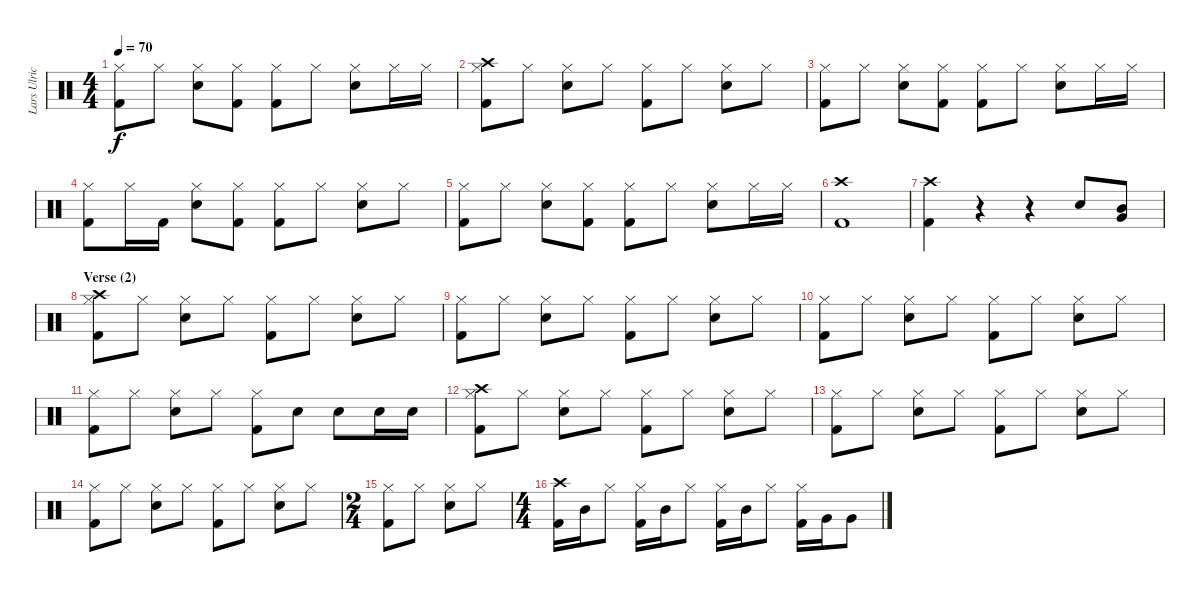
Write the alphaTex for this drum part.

\track ("Lars Ulrich (Drums)" "Lars Ulric") {instrument percussion}
\staff {score}
\articulation defaults
\ts (4 4)
\tempo 70
\clef neutral
\ks c
("Hi-Hat (closed)" "Kick (hit) 2").8{dy f} "Hi-Hat (closed)".8 ("Electric Snare (hit)" "Hi-Hat (closed)").8 ("Hi-Hat (closed)" "Kick (hit) 2").8 ("Hi-Hat (closed)" "Kick (hit) 2").8 "Hi-Hat (closed)".8 ("Electric Snare (hit)" "Hi-Hat (closed)").8 "Hi-Hat (closed)".16 "Hi-Hat (closed)".16 |
("Crash high (hit)" "Hi-Hat (closed)" "Kick (hit) 2").8 "Hi-Hat (closed)".8 ("Electric Snare (hit)" "Hi-Hat (closed)").8 "Hi-Hat (closed)".8 ("Hi-Hat (closed)" "Kick (hit) 2").8 "Hi-Hat (closed)".8 ("Electric Snare (hit)" "Hi-Hat (closed)").8 "Hi-Hat (closed)".8 |
("Hi-Hat (closed)" "Kick (hit) 2").8 "Hi-Hat (closed)".8 ("Electric Snare (hit)" "Hi-Hat (closed)").8 ("Hi-Hat (closed)" "Kick (hit) 2").8 ("Hi-Hat (closed)" "Kick (hit) 2").8 "Hi-Hat (closed)".8 ("Electric Snare (hit)" "Hi-Hat (closed)").8 "Hi-Hat (closed)".16 "Hi-Hat (closed)".16 |
("Hi-Hat (closed)" "Kick (hit) 2").8 "Hi-Hat (closed)".16 "Kick (hit) 2".16 ("Electric Snare (hit)" "Hi-Hat (closed)").8 ("Hi-Hat (closed)" "Kick (hit) 2").8 ("Hi-Hat (closed)" "Kick (hit) 2").8 "Hi-Hat (closed)".8 ("Electric Snare (hit)" "Hi-Hat (closed)").8 "Hi-Hat (closed)".8 |
("Hi-Hat (closed)" "Kick (hit) 2").8 "Hi-Hat (closed)".8 ("Electric Snare (hit)" "Hi-Hat (closed)").8 ("Hi-Hat (closed)" "Kick (hit) 2").8 ("Hi-Hat (closed)" "Kick (hit) 2").8 "Hi-Hat (closed)".8 ("Electric Snare (hit)" "Hi-Hat (closed)").8 "Hi-Hat (closed)".16 "Hi-Hat (closed)".16 |
("Crash high (hit)" "Kick (hit) 2").1 |
("Crash high (hit)" "Kick (hit) 2").4 r.4 r.4 "Electric Snare (hit)".8 ("Very Low Tom (hit)" "Mid Tom (hit)").8 |
\section ("" "Verse (2)")
("Crash high (hit)" "Hi-Hat (closed)" "Kick (hit) 2").8 "Hi-Hat (closed)".8 ("Electric Snare (hit)" "Hi-Hat (closed)").8 "Hi-Hat (closed)".8 ("Hi-Hat (closed)" "Kick (hit) 2").8 "Hi-Hat (closed)".8 ("Electric Snare (hit)" "Hi-Hat (closed)").8 "Hi-Hat (closed)".8 |
("Hi-Hat (closed)" "Kick (hit) 2").8 "Hi-Hat (closed)".8 ("Electric Snare (hit)" "Hi-Hat (closed)").8 "Hi-Hat (closed)".8 ("Hi-Hat (closed)" "Kick (hit) 2").8 "Hi-Hat (closed)".8 ("Electric Snare (hit)" "Hi-Hat (closed)").8 "Hi-Hat (closed)".8 |
("Hi-Hat (closed)" "Kick (hit) 2").8 "Hi-Hat (closed)".8 ("Electric Snare (hit)" "Hi-Hat (closed)").8 "Hi-Hat (closed)".8 ("Hi-Hat (closed)" "Kick (hit) 2").8 "Hi-Hat (closed)".8 ("Electric Snare (hit)" "Hi-Hat (closed)").8 "Hi-Hat (closed)".8 |
("Hi-Hat (closed)" "Kick (hit) 2").8 "Hi-Hat (closed)".8 ("Electric Snare (hit)" "Hi-Hat (closed)").8 "Hi-Hat (closed)".8 ("Hi-Hat (closed)" "Kick (hit) 2").8 "Electric Snare (hit)".8 "Electric Snare (hit)".8 "Electric Snare (hit)".16 "Electric Snare (hit)".16 |
("Crash high (hit)" "Hi-Hat (closed)" "Kick (hit) 2").8 "Hi-Hat (closed)".8 ("Electric Snare (hit)" "Hi-Hat (closed)").8 "Hi-Hat (closed)".8 ("Hi-Hat (closed)" "Kick (hit) 2").8 "Hi-Hat (closed)".8 ("Electric Snare (hit)" "Hi-Hat (closed)").8 "Hi-Hat (closed)".8 |
("Hi-Hat (closed)" "Kick (hit) 2").8 "Hi-Hat (closed)".8 ("Electric Snare (hit)" "Hi-Hat (closed)").8 "Hi-Hat (closed)".8 ("Hi-Hat (closed)" "Kick (hit) 2").8 "Hi-Hat (closed)".8 ("Electric Snare (hit)" "Hi-Hat (closed)").8 "Hi-Hat (closed)".8 |
("Hi-Hat (closed)" "Kick (hit) 2").8 "Hi-Hat (closed)".8 ("Electric Snare (hit)" "Hi-Hat (closed)").8 "Hi-Hat (closed)".8 ("Hi-Hat (closed)" "Kick (hit) 2").8 "Hi-Hat (closed)".8 ("Electric Snare (hit)" "Hi-Hat (closed)").8 "Hi-Hat (closed)".8 |
\ts (2 4)
("Hi-Hat (closed)" "Kick (hit) 2").8 "Hi-Hat (closed)".8 ("Electric Snare (hit)" "Hi-Hat (closed)").8 "Hi-Hat (closed)".8 |
\ts (4 4)
("Crash high (hit)" "Kick (hit) 2").16 "Mid Tom (hit)".16 "Hi-Hat (closed)".8 ("Hi-Hat (closed)" "Kick (hit) 2").16 "Mid Tom (hit)".16 "Hi-Hat (closed)".8 ("Hi-Hat (closed)" "Kick (hit) 2").16 "Mid Tom (hit)".16 "Hi-Hat (closed)".8 ("Hi-Hat (closed)" "Kick (hit) 2").16 "Very Low Tom (hit)".16 "Very Low Tom (hit)".8
